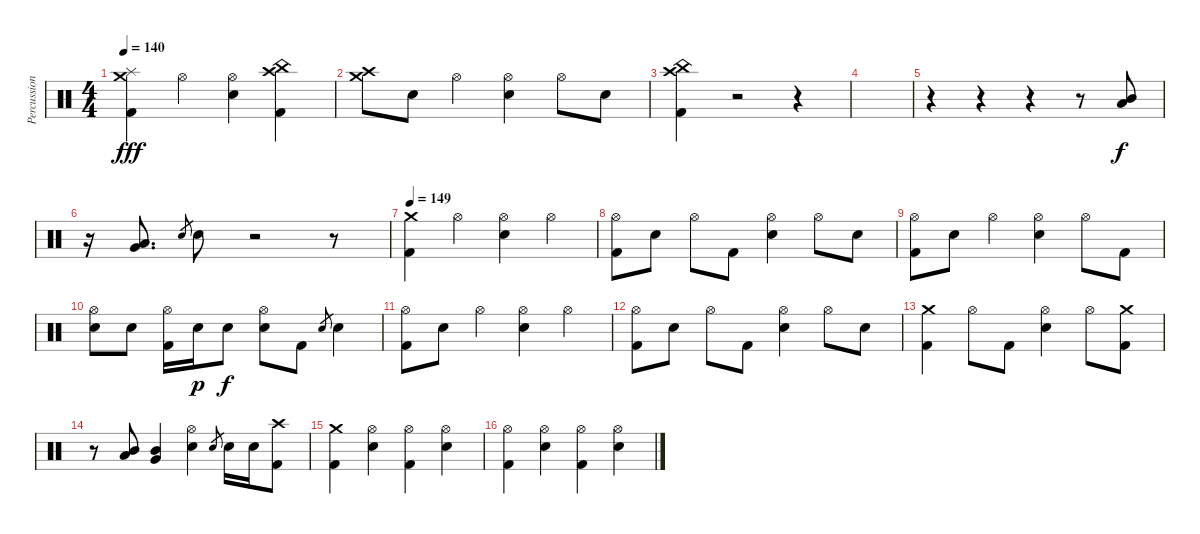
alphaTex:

\track ("Percussion" "Percussion") {instrument percussion}
\staff {score}
\articulation defaults
\ts (4 4)
\tempo 140
\clef neutral
\ks c
("Crash medium (hit)" "Splash (hit)" "Kick (hit) 2").4{dy fff} "Hi-Hat (open)".4 ("Hi-Hat (open)" "Electric Snare (hit)").4 ("China (hit)" "Crash high (hit)" "Kick (hit) 2").4 |
("Crash medium (hit)" "Crash high (hit)").8 "Electric Snare (hit)".8 "Hi-Hat (open)".4 ("Hi-Hat (open)" "Electric Snare (hit)").4 "Hi-Hat (open)".8 "Electric Snare (hit)".8 |
("Crash high (hit)" "China (hit)" "Kick (hit) 2").4 r.2{volume 0} r.4 |
|
r.4 r.4 r.4 r.8 ("Mid Tom (hit)" "Low Tom (hit)").8{dy f} |
r.16 ("Low Tom (hit)" "Very Low Tom (hit)").8{d} "Electric Snare (hit)".8{gr} "Electric Snare (hit)".8 r.2 r.8 |
\tempo 149
("Crash medium (hit)" "Kick (hit) 2").4 "Hi-Hat (open)".4 ("Hi-Hat (open)" "Electric Snare (hit)").4 "Hi-Hat (open)".4 |
("Hi-Hat (open)" "Kick (hit) 2").8 "Electric Snare (hit)".8 "Hi-Hat (open)".8 "Kick (hit) 2".8 ("Hi-Hat (open)" "Electric Snare (hit)").4 "Hi-Hat (open)".8 "Electric Snare (hit)".8 |
("Hi-Hat (open)" "Kick (hit) 2").8 "Electric Snare (hit)".8 "Hi-Hat (open)".4 ("Hi-Hat (open)" "Electric Snare (hit)").4 "Hi-Hat (open)".8 "Kick (hit) 2".8 |
("Hi-Hat (open)" "Electric Snare (hit)").8 "Electric Snare (hit)".8 ("Hi-Hat (open)" "Kick (hit) 2").16 "Electric Snare (hit)".16{dy p} "Electric Snare (hit)".8{dy f} ("Hi-Hat (open)" "Electric Snare (hit)").8 "Kick (hit) 2".8 "Electric Snare (hit)".8{gr} "Electric Snare (hit)".4 |
("Hi-Hat (open)" "Kick (hit) 2").8 "Electric Snare (hit)".8 "Hi-Hat (open)".4 ("Hi-Hat (open)" "Electric Snare (hit)").4 "Hi-Hat (open)".4 |
("Hi-Hat (open)" "Kick (hit) 2").8 "Electric Snare (hit)".8 "Hi-Hat (open)".8 "Kick (hit) 2".8 ("Hi-Hat (open)" "Electric Snare (hit)").4 "Hi-Hat (open)".8 "Electric Snare (hit)".8 |
("Crash medium (hit)" "Kick (hit) 2").4 "Hi-Hat (open)".8 "Kick (hit) 2".8 ("Hi-Hat (open)" "Electric Snare (hit)").4 "Hi-Hat (open)".8 ("Crash medium (hit)" "Kick (hit) 2").8 |
r.8 ("Low Tom (hit)" "Mid Tom (hit)").8 ("Mid Tom (hit)" "Very Low Tom (hit)").4 ("Hi-Hat (open)" "Electric Snare (hit)").4 "Electric Snare (hit)".8{gr} "Electric Snare (hit)".16 "Electric Snare (hit)".16 ("Crash high (hit)" "Kick (hit) 2").8 |
("Crash medium (hit)" "Kick (hit) 2").4 ("Hi-Hat (open)" "Electric Snare (hit)").4 ("Hi-Hat (open)" "Kick (hit) 2").4 ("Hi-Hat (open)" "Electric Snare (hit)").4 |
("Hi-Hat (open)" "Kick (hit) 2").4 ("Hi-Hat (open)" "Electric Snare (hit)").4 ("Hi-Hat (open)" "Kick (hit) 2").4 ("Hi-Hat (open)" "Electric Snare (hit)").4
